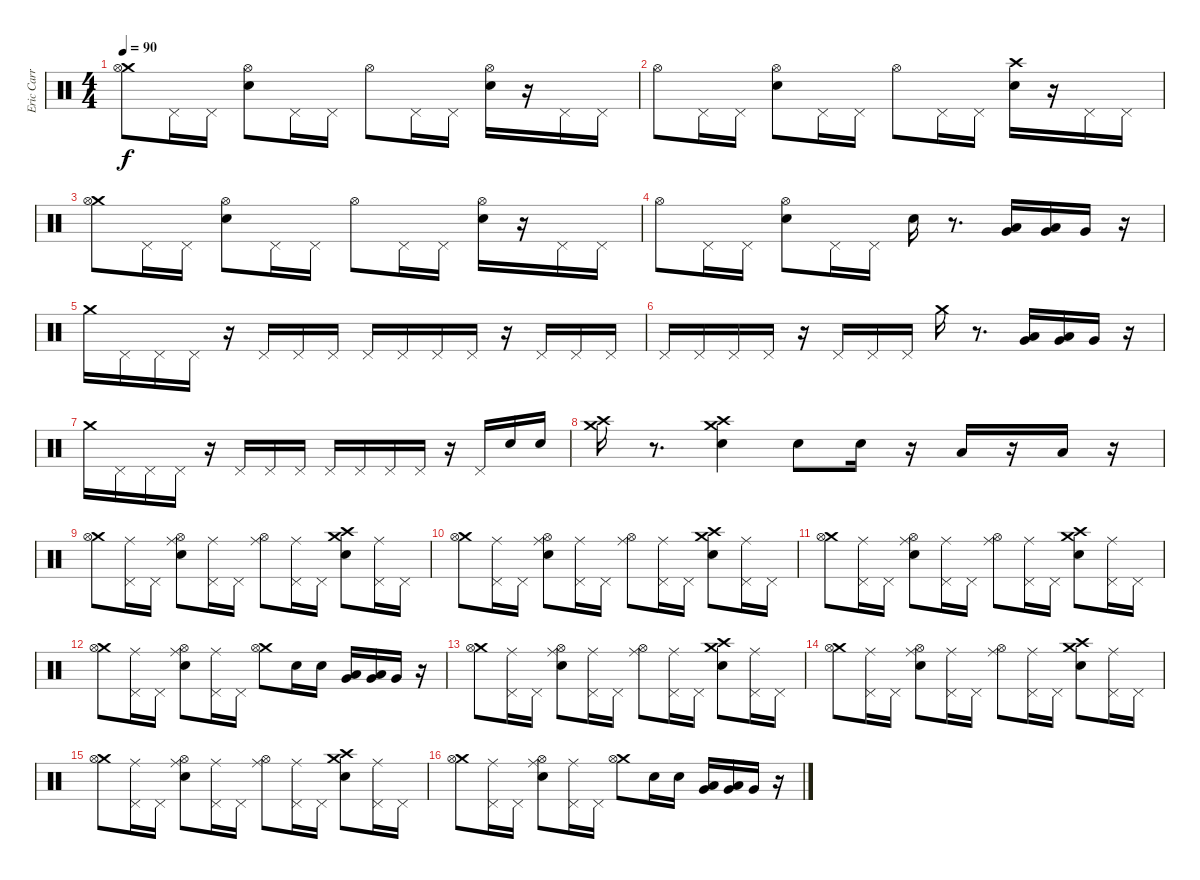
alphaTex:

\track ("Eric Carr" "Eric Carr") {instrument percussion}
\staff {score}
\articulation defaults
\ts (4 4)
\tempo 90
\clef neutral
\ks c
("Crash medium (hit)" "Hi-Hat (open)").8{dy f} "Pedal Hi-Hat (hit)".16 "Pedal Hi-Hat (hit)".16 ("Hi-Hat (open)" "Electric Snare (hit)").8 "Pedal Hi-Hat (hit)".16 "Pedal Hi-Hat (hit)".16 "Hi-Hat (open)".8 "Pedal Hi-Hat (hit)".16 "Pedal Hi-Hat (hit)".16 ("Hi-Hat (open)" "Electric Snare (hit)").16 r.16 "Pedal Hi-Hat (hit)".16 "Pedal Hi-Hat (hit)".16 |
"Hi-Hat (open)".8 "Pedal Hi-Hat (hit)".16 "Pedal Hi-Hat (hit)".16 ("Hi-Hat (open)" "Electric Snare (hit)").8 "Pedal Hi-Hat (hit)".16 "Pedal Hi-Hat (hit)".16 "Hi-Hat (open)".8 "Pedal Hi-Hat (hit)".16 "Pedal Hi-Hat (hit)".16 ("Crash high (hit)" "Electric Snare (hit)").16 r.16 "Pedal Hi-Hat (hit)".16 "Pedal Hi-Hat (hit)".16 |
("Crash medium (hit)" "Hi-Hat (open)").8 "Pedal Hi-Hat (hit)".16 "Pedal Hi-Hat (hit)".16 ("Hi-Hat (open)" "Electric Snare (hit)").8 "Pedal Hi-Hat (hit)".16 "Pedal Hi-Hat (hit)".16 "Hi-Hat (open)".8 "Pedal Hi-Hat (hit)".16 "Pedal Hi-Hat (hit)".16 ("Hi-Hat (open)" "Electric Snare (hit)").16 r.16 "Pedal Hi-Hat (hit)".16 "Pedal Hi-Hat (hit)".16 |
"Hi-Hat (open)".8 "Pedal Hi-Hat (hit)".16 "Pedal Hi-Hat (hit)".16 ("Hi-Hat (open)" "Electric Snare (hit)").8 "Pedal Hi-Hat (hit)".16 "Pedal Hi-Hat (hit)".16 "Electric Snare (hit)".16 r.8{d} ("Low Tom (hit)" "Very Low Tom (hit)").16 ("Low Tom (hit)" "Very Low Tom (hit)").16 "Very Low Tom (hit)".16 r.16 |
"Crash medium (hit)".16 "Pedal Hi-Hat (hit)".16 "Pedal Hi-Hat (hit)".16 "Pedal Hi-Hat (hit)".16 r.16 "Pedal Hi-Hat (hit)".16 "Pedal Hi-Hat (hit)".16 "Pedal Hi-Hat (hit)".16 "Pedal Hi-Hat (hit)".16 "Pedal Hi-Hat (hit)".16 "Pedal Hi-Hat (hit)".16 "Pedal Hi-Hat (hit)".16 r.16 "Pedal Hi-Hat (hit)".16 "Pedal Hi-Hat (hit)".16 "Pedal Hi-Hat (hit)".16 |
"Pedal Hi-Hat (hit)".16 "Pedal Hi-Hat (hit)".16 "Pedal Hi-Hat (hit)".16 "Pedal Hi-Hat (hit)".16 r.16 "Pedal Hi-Hat (hit)".16 "Pedal Hi-Hat (hit)".16 "Pedal Hi-Hat (hit)".16 "Crash medium (hit)".16 r.8{d} ("Low Tom (hit)" "Very Low Tom (hit)").16 ("Low Tom (hit)" "Very Low Tom (hit)").16 "Very Low Tom (hit)".16 r.16 |
"Crash medium (hit)".16 "Pedal Hi-Hat (hit)".16 "Pedal Hi-Hat (hit)".16 "Pedal Hi-Hat (hit)".16 r.16 "Pedal Hi-Hat (hit)".16 "Pedal Hi-Hat (hit)".16 "Pedal Hi-Hat (hit)".16 "Pedal Hi-Hat (hit)".16 "Pedal Hi-Hat (hit)".16 "Pedal Hi-Hat (hit)".16 "Pedal Hi-Hat (hit)".16 r.16 "Pedal Hi-Hat (hit)".16 "Electric Snare (hit)".16 "Electric Snare (hit)".16 |
("Crash medium (hit)" "Crash high (hit)").16 r.8{d} ("Crash medium (hit)" "Crash high (hit)" "Electric Snare (hit)").4 "Electric Snare (hit)".8 "Electric Snare (hit)".16 r.16 "Low Tom (hit)".16 r.16 "Low Floor Tom (hit)".16 r.16 |
("Crash medium (hit)" "Hi-Hat (open)").8 ("Ride (middle)" "Pedal Hi-Hat (hit)").16 "Pedal Hi-Hat (hit)".16 ("Ride (middle)" "Hi-Hat (open)" "Electric Snare (hit)").8 ("Ride (middle)" "Pedal Hi-Hat (hit)").16 "Pedal Hi-Hat (hit)".16 ("Ride (middle)" "Hi-Hat (open)").8 ("Ride (middle)" "Pedal Hi-Hat (hit)").16 "Pedal Hi-Hat (hit)".16 ("Crash medium (hit)" "Crash high (hit)" "Electric Snare (hit)").8 ("Ride (middle)" "Pedal Hi-Hat (hit)").16 "Pedal Hi-Hat (hit)".16 |
("Crash medium (hit)" "Hi-Hat (open)").8 ("Ride (middle)" "Pedal Hi-Hat (hit)").16 "Pedal Hi-Hat (hit)".16 ("Ride (middle)" "Hi-Hat (open)" "Electric Snare (hit)").8 ("Ride (middle)" "Pedal Hi-Hat (hit)").16 "Pedal Hi-Hat (hit)".16 ("Ride (middle)" "Hi-Hat (open)").8 ("Ride (middle)" "Pedal Hi-Hat (hit)").16 "Pedal Hi-Hat (hit)".16 ("Crash medium (hit)" "Crash high (hit)" "Electric Snare (hit)").8 ("Ride (middle)" "Pedal Hi-Hat (hit)").16 "Pedal Hi-Hat (hit)".16 |
("Crash medium (hit)" "Hi-Hat (open)").8 ("Ride (middle)" "Pedal Hi-Hat (hit)").16 "Pedal Hi-Hat (hit)".16 ("Ride (middle)" "Hi-Hat (open)" "Electric Snare (hit)").8 ("Ride (middle)" "Pedal Hi-Hat (hit)").16 "Pedal Hi-Hat (hit)".16 ("Ride (middle)" "Hi-Hat (open)").8 ("Ride (middle)" "Pedal Hi-Hat (hit)").16 "Pedal Hi-Hat (hit)".16 ("Crash medium (hit)" "Crash high (hit)" "Electric Snare (hit)").8 ("Ride (middle)" "Pedal Hi-Hat (hit)").16 "Pedal Hi-Hat (hit)".16 |
("Crash medium (hit)" "Hi-Hat (open)").8 ("Ride (middle)" "Pedal Hi-Hat (hit)").16 "Pedal Hi-Hat (hit)".16 ("Ride (middle)" "Hi-Hat (open)" "Electric Snare (hit)").8 ("Ride (middle)" "Pedal Hi-Hat (hit)").16 "Pedal Hi-Hat (hit)".16 ("Crash medium (hit)" "Hi-Hat (open)").8 "Electric Snare (hit)".16 "Electric Snare (hit)".16 ("Low Tom (hit)" "Very Low Tom (hit)").16 ("Low Tom (hit)" "Very Low Tom (hit)").16 "Very Low Tom (hit)".16 r.16 |
("Crash medium (hit)" "Hi-Hat (open)").8 ("Ride (middle)" "Pedal Hi-Hat (hit)").16 "Pedal Hi-Hat (hit)".16 ("Ride (middle)" "Hi-Hat (open)" "Electric Snare (hit)").8 ("Ride (middle)" "Pedal Hi-Hat (hit)").16 "Pedal Hi-Hat (hit)".16 ("Ride (middle)" "Hi-Hat (open)").8 ("Ride (middle)" "Pedal Hi-Hat (hit)").16 "Pedal Hi-Hat (hit)".16 ("Crash medium (hit)" "Crash high (hit)" "Electric Snare (hit)").8 ("Ride (middle)" "Pedal Hi-Hat (hit)").16 "Pedal Hi-Hat (hit)".16 |
("Crash medium (hit)" "Hi-Hat (open)").8 ("Ride (middle)" "Pedal Hi-Hat (hit)").16 "Pedal Hi-Hat (hit)".16 ("Ride (middle)" "Hi-Hat (open)" "Electric Snare (hit)").8 ("Ride (middle)" "Pedal Hi-Hat (hit)").16 "Pedal Hi-Hat (hit)".16 ("Ride (middle)" "Hi-Hat (open)").8 ("Ride (middle)" "Pedal Hi-Hat (hit)").16 "Pedal Hi-Hat (hit)".16 ("Crash medium (hit)" "Crash high (hit)" "Electric Snare (hit)").8 ("Ride (middle)" "Pedal Hi-Hat (hit)").16 "Pedal Hi-Hat (hit)".16 |
("Crash medium (hit)" "Hi-Hat (open)").8 ("Ride (middle)" "Pedal Hi-Hat (hit)").16 "Pedal Hi-Hat (hit)".16 ("Ride (middle)" "Hi-Hat (open)" "Electric Snare (hit)").8 ("Ride (middle)" "Pedal Hi-Hat (hit)").16 "Pedal Hi-Hat (hit)".16 ("Ride (middle)" "Hi-Hat (open)").8 ("Ride (middle)" "Pedal Hi-Hat (hit)").16 "Pedal Hi-Hat (hit)".16 ("Crash medium (hit)" "Crash high (hit)" "Electric Snare (hit)").8 ("Ride (middle)" "Pedal Hi-Hat (hit)").16 "Pedal Hi-Hat (hit)".16 |
("Crash medium (hit)" "Hi-Hat (open)").8 ("Ride (middle)" "Pedal Hi-Hat (hit)").16 "Pedal Hi-Hat (hit)".16 ("Ride (middle)" "Hi-Hat (open)" "Electric Snare (hit)").8 ("Ride (middle)" "Pedal Hi-Hat (hit)").16 "Pedal Hi-Hat (hit)".16 ("Crash medium (hit)" "Hi-Hat (open)").8 "Electric Snare (hit)".16 "Electric Snare (hit)".16 ("Low Tom (hit)" "Very Low Tom (hit)").16 ("Low Tom (hit)" "Very Low Tom (hit)").16 "Very Low Tom (hit)".16 r.16
